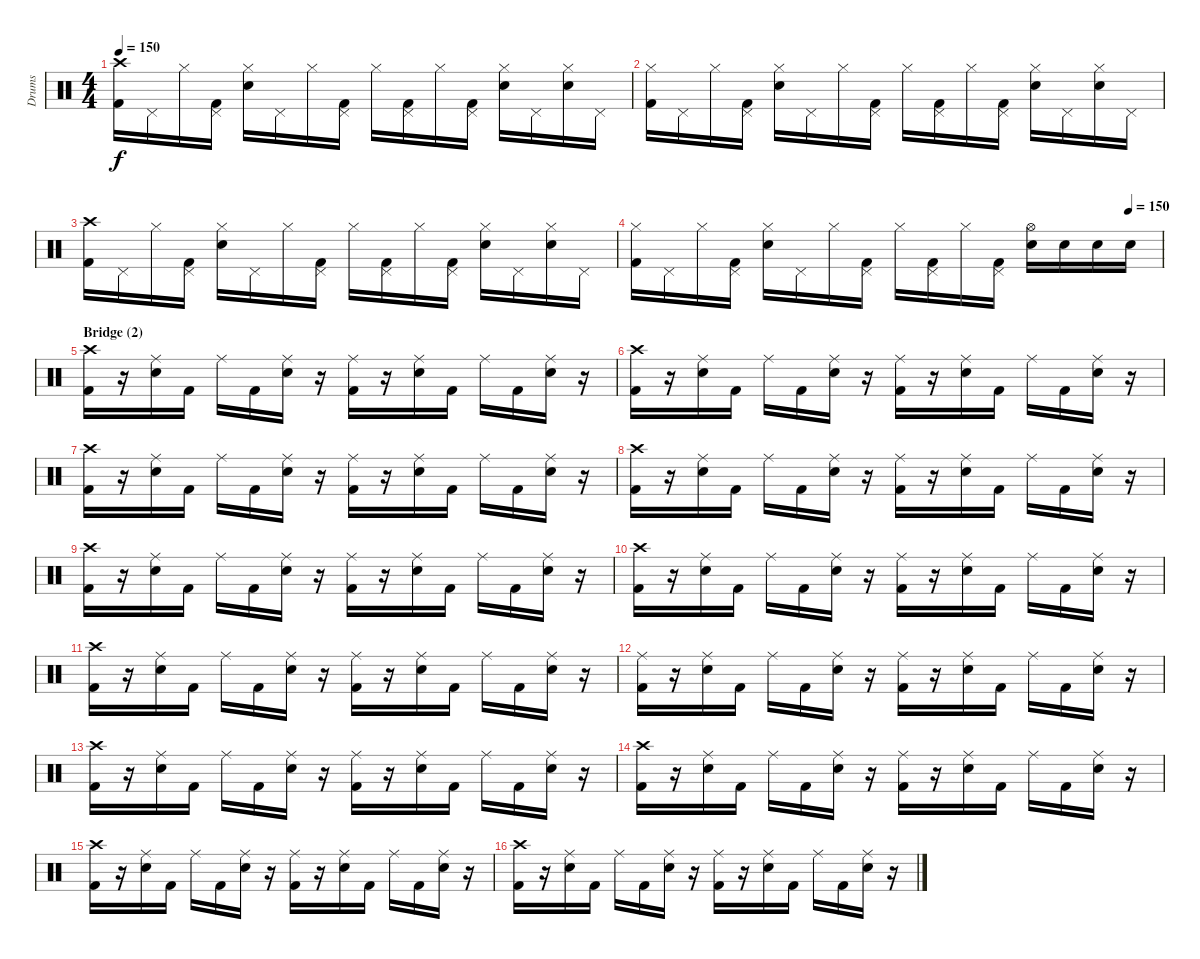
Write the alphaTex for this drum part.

\track ("Drums" "Drums") {instrument percussion}
\staff {score}
\articulation defaults
\ts (4 4)
\tempo 150
\clef neutral
\ks c
("Crash high (hit)" "Kick (hit) 2").16{dy f} "Pedal Hi-Hat (hit)".16 "Hi-Hat (closed)".16 ("Pedal Hi-Hat (hit)" "Kick (hit) 2").16 ("Hi-Hat (closed)" "Electric Snare (hit)").16 "Pedal Hi-Hat (hit)".16 "Hi-Hat (closed)".16 ("Pedal Hi-Hat (hit)" "Kick (hit) 2").16 "Hi-Hat (closed)".16 ("Pedal Hi-Hat (hit)" "Kick (hit) 2").16 "Hi-Hat (closed)".16 ("Pedal Hi-Hat (hit)" "Kick (hit) 2").16 ("Hi-Hat (closed)" "Electric Snare (hit)").16 "Pedal Hi-Hat (hit)".16 ("Hi-Hat (closed)" "Electric Snare (hit)").16 "Pedal Hi-Hat (hit)".16 |
("Hi-Hat (closed)" "Kick (hit) 2").16 "Pedal Hi-Hat (hit)".16 "Hi-Hat (closed)".16 ("Pedal Hi-Hat (hit)" "Kick (hit) 2").16 ("Hi-Hat (closed)" "Electric Snare (hit)").16 "Pedal Hi-Hat (hit)".16 "Hi-Hat (closed)".16 ("Pedal Hi-Hat (hit)" "Kick (hit) 2").16 "Hi-Hat (closed)".16 ("Pedal Hi-Hat (hit)" "Kick (hit) 2").16 "Hi-Hat (closed)".16 ("Pedal Hi-Hat (hit)" "Kick (hit) 2").16 ("Hi-Hat (closed)" "Electric Snare (hit)").16 "Pedal Hi-Hat (hit)".16 ("Hi-Hat (closed)" "Electric Snare (hit)").16 "Pedal Hi-Hat (hit)".16 |
("Crash high (hit)" "Kick (hit) 2").16 "Pedal Hi-Hat (hit)".16 "Hi-Hat (closed)".16 ("Pedal Hi-Hat (hit)" "Kick (hit) 2").16 ("Hi-Hat (closed)" "Electric Snare (hit)").16 "Pedal Hi-Hat (hit)".16 "Hi-Hat (closed)".16 ("Pedal Hi-Hat (hit)" "Kick (hit) 2").16 "Hi-Hat (closed)".16 ("Pedal Hi-Hat (hit)" "Kick (hit) 2").16 "Hi-Hat (closed)".16 ("Pedal Hi-Hat (hit)" "Kick (hit) 2").16 ("Hi-Hat (closed)" "Electric Snare (hit)").16 "Pedal Hi-Hat (hit)".16 ("Hi-Hat (closed)" "Electric Snare (hit)").16 "Pedal Hi-Hat (hit)".16 |
\tempo (150 0.9375)
("Hi-Hat (closed)" "Kick (hit) 2").16 "Pedal Hi-Hat (hit)".16 "Hi-Hat (closed)".16 ("Pedal Hi-Hat (hit)" "Kick (hit) 2").16 ("Hi-Hat (closed)" "Electric Snare (hit)").16 "Pedal Hi-Hat (hit)".16 "Hi-Hat (closed)".16 ("Pedal Hi-Hat (hit)" "Kick (hit) 2").16 "Hi-Hat (closed)".16 ("Pedal Hi-Hat (hit)" "Kick (hit) 2").16 "Hi-Hat (closed)".16 ("Pedal Hi-Hat (hit)" "Kick (hit) 2").16 ("Hi-Hat (open)" "Electric Snare (hit)").16 "Electric Snare (hit)".16 "Electric Snare (hit)".16 "Electric Snare (hit)".16 |
\section ("" "Bridge (2)")
("Crash high (hit)" "Kick (hit) 2").16 r.16 ("Ride (middle)" "Electric Snare (hit)").16 "Kick (hit) 2".16 "Ride (middle)".16 "Kick (hit) 2".16 ("Ride (middle)" "Electric Snare (hit)").16 r.16 ("Ride (middle)" "Kick (hit) 2").16 r.16 ("Ride (middle)" "Electric Snare (hit)").16 "Kick (hit) 2".16 "Ride (middle)".16 "Kick (hit) 2".16 ("Ride (middle)" "Electric Snare (hit)").16 r.16 |
("Crash high (hit)" "Kick (hit) 2").16 r.16 ("Ride (middle)" "Electric Snare (hit)").16 "Kick (hit) 2".16 "Ride (middle)".16 "Kick (hit) 2".16 ("Ride (middle)" "Electric Snare (hit)").16 r.16 ("Ride (middle)" "Kick (hit) 2").16 r.16 ("Ride (middle)" "Electric Snare (hit)").16 "Kick (hit) 2".16 "Ride (middle)".16 "Kick (hit) 2".16 ("Ride (middle)" "Electric Snare (hit)").16 r.16 |
("Crash high (hit)" "Kick (hit) 2").16 r.16 ("Ride (middle)" "Electric Snare (hit)").16 "Kick (hit) 2".16 "Ride (middle)".16 "Kick (hit) 2".16 ("Ride (middle)" "Electric Snare (hit)").16 r.16 ("Ride (middle)" "Kick (hit) 2").16 r.16 ("Ride (middle)" "Electric Snare (hit)").16 "Kick (hit) 2".16 "Ride (middle)".16 "Kick (hit) 2".16 ("Ride (middle)" "Electric Snare (hit)").16 r.16 |
("Crash high (hit)" "Kick (hit) 2").16 r.16 ("Ride (middle)" "Electric Snare (hit)").16 "Kick (hit) 2".16 "Ride (middle)".16 "Kick (hit) 2".16 ("Ride (middle)" "Electric Snare (hit)").16 r.16 ("Ride (middle)" "Kick (hit) 2").16 r.16 ("Ride (middle)" "Electric Snare (hit)").16 "Kick (hit) 2".16 "Ride (middle)".16 "Kick (hit) 2".16 ("Ride (middle)" "Electric Snare (hit)").16 r.16 |
("Crash high (hit)" "Kick (hit) 2").16 r.16 ("Ride (middle)" "Electric Snare (hit)").16 "Kick (hit) 2".16 "Ride (middle)".16 "Kick (hit) 2".16 ("Ride (middle)" "Electric Snare (hit)").16 r.16 ("Ride (middle)" "Kick (hit) 2").16 r.16 ("Ride (middle)" "Electric Snare (hit)").16 "Kick (hit) 2".16 "Ride (middle)".16 "Kick (hit) 2".16 ("Ride (middle)" "Electric Snare (hit)").16 r.16 |
("Crash high (hit)" "Kick (hit) 2").16 r.16 ("Ride (middle)" "Electric Snare (hit)").16 "Kick (hit) 2".16 "Ride (middle)".16 "Kick (hit) 2".16 ("Ride (middle)" "Electric Snare (hit)").16 r.16 ("Ride (middle)" "Kick (hit) 2").16 r.16 ("Ride (middle)" "Electric Snare (hit)").16 "Kick (hit) 2".16 "Ride (middle)".16 "Kick (hit) 2".16 ("Ride (middle)" "Electric Snare (hit)").16 r.16 |
("Crash high (hit)" "Kick (hit) 2").16 r.16 ("Ride (middle)" "Electric Snare (hit)").16 "Kick (hit) 2".16 "Ride (middle)".16 "Kick (hit) 2".16 ("Ride (middle)" "Electric Snare (hit)").16 r.16 ("Ride (middle)" "Kick (hit) 2").16 r.16 ("Ride (middle)" "Electric Snare (hit)").16 "Kick (hit) 2".16 "Ride (middle)".16 "Kick (hit) 2".16 ("Ride (middle)" "Electric Snare (hit)").16 r.16 |
("Ride (middle)" "Kick (hit) 2").16 r.16 ("Ride (middle)" "Electric Snare (hit)").16 "Kick (hit) 2".16 "Ride (middle)".16 "Kick (hit) 2".16 ("Ride (middle)" "Electric Snare (hit)").16 r.16 ("Ride (middle)" "Kick (hit) 2").16 r.16 ("Ride (middle)" "Electric Snare (hit)").16 "Kick (hit) 2".16 "Ride (middle)".16 "Kick (hit) 2".16 ("Ride (middle)" "Electric Snare (hit)").16 r.16 |
("Crash high (hit)" "Kick (hit) 2").16 r.16 ("Ride (middle)" "Electric Snare (hit)").16 "Kick (hit) 2".16 "Ride (middle)".16 "Kick (hit) 2".16 ("Ride (middle)" "Electric Snare (hit)").16 r.16 ("Ride (middle)" "Kick (hit) 2").16 r.16 ("Ride (middle)" "Electric Snare (hit)").16 "Kick (hit) 2".16 "Ride (middle)".16 "Kick (hit) 2".16 ("Ride (middle)" "Electric Snare (hit)").16 r.16 |
("Crash high (hit)" "Kick (hit) 2").16 r.16 ("Ride (middle)" "Electric Snare (hit)").16 "Kick (hit) 2".16 "Ride (middle)".16 "Kick (hit) 2".16 ("Ride (middle)" "Electric Snare (hit)").16 r.16 ("Ride (middle)" "Kick (hit) 2").16 r.16 ("Ride (middle)" "Electric Snare (hit)").16 "Kick (hit) 2".16 "Ride (middle)".16 "Kick (hit) 2".16 ("Ride (middle)" "Electric Snare (hit)").16 r.16 |
("Crash high (hit)" "Kick (hit) 2").16 r.16 ("Ride (middle)" "Electric Snare (hit)").16 "Kick (hit) 2".16 "Ride (middle)".16 "Kick (hit) 2".16 ("Ride (middle)" "Electric Snare (hit)").16 r.16 ("Ride (middle)" "Kick (hit) 2").16 r.16 ("Ride (middle)" "Electric Snare (hit)").16 "Kick (hit) 2".16 "Ride (middle)".16 "Kick (hit) 2".16 ("Ride (middle)" "Electric Snare (hit)").16 r.16 |
("Crash high (hit)" "Kick (hit) 2").16 r.16 ("Ride (middle)" "Electric Snare (hit)").16 "Kick (hit) 2".16 "Ride (middle)".16 "Kick (hit) 2".16 ("Ride (middle)" "Electric Snare (hit)").16 r.16 ("Ride (middle)" "Kick (hit) 2").16 r.16 ("Ride (middle)" "Electric Snare (hit)").16 "Kick (hit) 2".16 "Ride (middle)".16 "Kick (hit) 2".16 ("Ride (middle)" "Electric Snare (hit)").16 r.16
